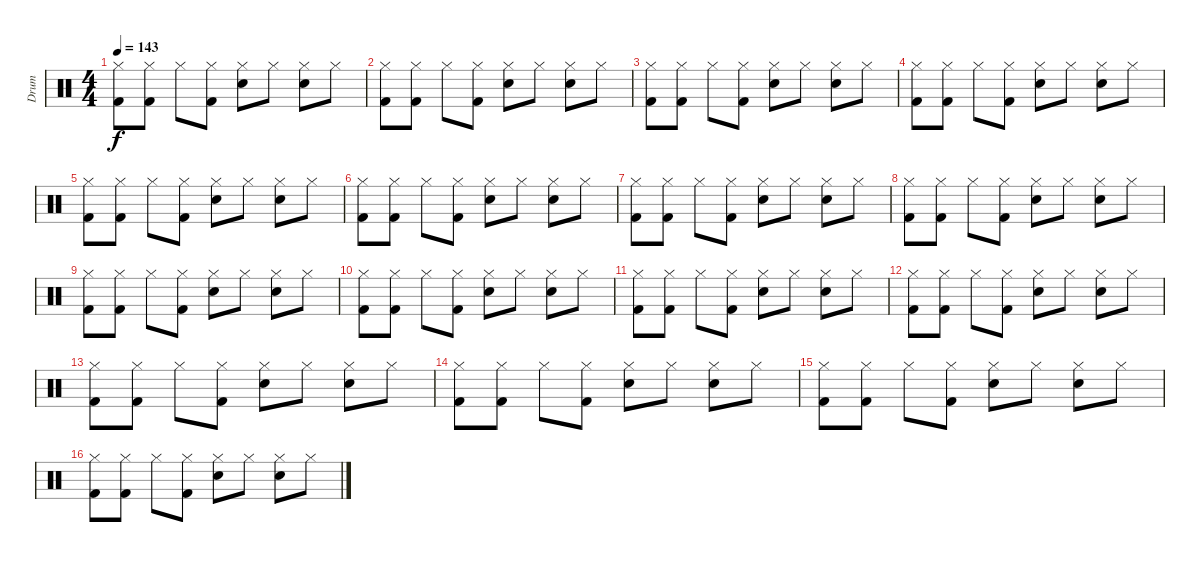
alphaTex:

\track ("Drum" "Drum") {instrument percussion}
\staff {score}
\articulation defaults
\ts (4 4)
\tempo 143
\clef neutral
\ks c
("Hi-Hat (closed)" "Kick (hit) 2").8{dy f} ("Hi-Hat (closed)" "Kick (hit) 2").8 "Hi-Hat (closed)".8 ("Hi-Hat (closed)" "Kick (hit) 2").8 ("Hi-Hat (closed)" "Electric Snare (hit)").8 "Hi-Hat (closed)".8 ("Hi-Hat (closed)" "Electric Snare (hit)").8 "Hi-Hat (closed)".8 |
("Hi-Hat (closed)" "Kick (hit) 2").8 ("Hi-Hat (closed)" "Kick (hit) 2").8 "Hi-Hat (closed)".8 ("Hi-Hat (closed)" "Kick (hit) 2").8 ("Hi-Hat (closed)" "Electric Snare (hit)").8 "Hi-Hat (closed)".8 ("Hi-Hat (closed)" "Electric Snare (hit)").8 "Hi-Hat (closed)".8 |
("Hi-Hat (closed)" "Kick (hit) 2").8 ("Hi-Hat (closed)" "Kick (hit) 2").8 "Hi-Hat (closed)".8 ("Hi-Hat (closed)" "Kick (hit) 2").8 ("Hi-Hat (closed)" "Electric Snare (hit)").8 "Hi-Hat (closed)".8 ("Hi-Hat (closed)" "Electric Snare (hit)").8 "Hi-Hat (closed)".8 |
("Hi-Hat (closed)" "Kick (hit) 2").8 ("Hi-Hat (closed)" "Kick (hit) 2").8 "Hi-Hat (closed)".8 ("Hi-Hat (closed)" "Kick (hit) 2").8 ("Hi-Hat (closed)" "Electric Snare (hit)").8 "Hi-Hat (closed)".8 ("Hi-Hat (closed)" "Electric Snare (hit)").8 "Hi-Hat (closed)".8 |
("Hi-Hat (closed)" "Kick (hit) 2").8 ("Hi-Hat (closed)" "Kick (hit) 2").8 "Hi-Hat (closed)".8 ("Hi-Hat (closed)" "Kick (hit) 2").8 ("Hi-Hat (closed)" "Electric Snare (hit)").8 "Hi-Hat (closed)".8 ("Hi-Hat (closed)" "Electric Snare (hit)").8 "Hi-Hat (closed)".8 |
("Hi-Hat (closed)" "Kick (hit) 2").8 ("Hi-Hat (closed)" "Kick (hit) 2").8 "Hi-Hat (closed)".8 ("Hi-Hat (closed)" "Kick (hit) 2").8 ("Hi-Hat (closed)" "Electric Snare (hit)").8 "Hi-Hat (closed)".8 ("Hi-Hat (closed)" "Electric Snare (hit)").8 "Hi-Hat (closed)".8 |
("Hi-Hat (closed)" "Kick (hit) 2").8 ("Hi-Hat (closed)" "Kick (hit) 2").8 "Hi-Hat (closed)".8 ("Hi-Hat (closed)" "Kick (hit) 2").8 ("Hi-Hat (closed)" "Electric Snare (hit)").8 "Hi-Hat (closed)".8 ("Hi-Hat (closed)" "Electric Snare (hit)").8 "Hi-Hat (closed)".8 |
("Hi-Hat (closed)" "Kick (hit) 2").8 ("Hi-Hat (closed)" "Kick (hit) 2").8 "Hi-Hat (closed)".8 ("Hi-Hat (closed)" "Kick (hit) 2").8 ("Hi-Hat (closed)" "Electric Snare (hit)").8 "Hi-Hat (closed)".8 ("Hi-Hat (closed)" "Electric Snare (hit)").8 "Hi-Hat (closed)".8 |
("Hi-Hat (closed)" "Kick (hit) 2").8 ("Hi-Hat (closed)" "Kick (hit) 2").8 "Hi-Hat (closed)".8 ("Hi-Hat (closed)" "Kick (hit) 2").8 ("Hi-Hat (closed)" "Electric Snare (hit)").8 "Hi-Hat (closed)".8 ("Hi-Hat (closed)" "Electric Snare (hit)").8 "Hi-Hat (closed)".8 |
("Hi-Hat (closed)" "Kick (hit) 2").8 ("Hi-Hat (closed)" "Kick (hit) 2").8 "Hi-Hat (closed)".8 ("Hi-Hat (closed)" "Kick (hit) 2").8 ("Hi-Hat (closed)" "Electric Snare (hit)").8 "Hi-Hat (closed)".8 ("Hi-Hat (closed)" "Electric Snare (hit)").8 "Hi-Hat (closed)".8 |
("Hi-Hat (closed)" "Kick (hit) 2").8 ("Hi-Hat (closed)" "Kick (hit) 2").8 "Hi-Hat (closed)".8 ("Hi-Hat (closed)" "Kick (hit) 2").8 ("Hi-Hat (closed)" "Electric Snare (hit)").8 "Hi-Hat (closed)".8 ("Hi-Hat (closed)" "Electric Snare (hit)").8 "Hi-Hat (closed)".8 |
("Hi-Hat (closed)" "Kick (hit) 2").8 ("Hi-Hat (closed)" "Kick (hit) 2").8 "Hi-Hat (closed)".8 ("Hi-Hat (closed)" "Kick (hit) 2").8 ("Hi-Hat (closed)" "Electric Snare (hit)").8 "Hi-Hat (closed)".8 ("Hi-Hat (closed)" "Electric Snare (hit)").8 "Hi-Hat (closed)".8 |
("Hi-Hat (closed)" "Kick (hit) 2").8 ("Hi-Hat (closed)" "Kick (hit) 2").8 "Hi-Hat (closed)".8 ("Hi-Hat (closed)" "Kick (hit) 2").8 ("Hi-Hat (closed)" "Electric Snare (hit)").8 "Hi-Hat (closed)".8 ("Hi-Hat (closed)" "Electric Snare (hit)").8 "Hi-Hat (closed)".8 |
("Hi-Hat (closed)" "Kick (hit) 2").8 ("Hi-Hat (closed)" "Kick (hit) 2").8 "Hi-Hat (closed)".8 ("Hi-Hat (closed)" "Kick (hit) 2").8 ("Hi-Hat (closed)" "Electric Snare (hit)").8 "Hi-Hat (closed)".8 ("Hi-Hat (closed)" "Electric Snare (hit)").8 "Hi-Hat (closed)".8 |
("Hi-Hat (closed)" "Kick (hit) 2").8 ("Hi-Hat (closed)" "Kick (hit) 2").8 "Hi-Hat (closed)".8 ("Hi-Hat (closed)" "Kick (hit) 2").8 ("Hi-Hat (closed)" "Electric Snare (hit)").8 "Hi-Hat (closed)".8 ("Hi-Hat (closed)" "Electric Snare (hit)").8 "Hi-Hat (closed)".8 |
("Hi-Hat (closed)" "Kick (hit) 2").8 ("Hi-Hat (closed)" "Kick (hit) 2").8 "Hi-Hat (closed)".8 ("Hi-Hat (closed)" "Kick (hit) 2").8 ("Hi-Hat (closed)" "Electric Snare (hit)").8 "Hi-Hat (closed)".8 ("Hi-Hat (closed)" "Electric Snare (hit)").8 "Hi-Hat (closed)".8
